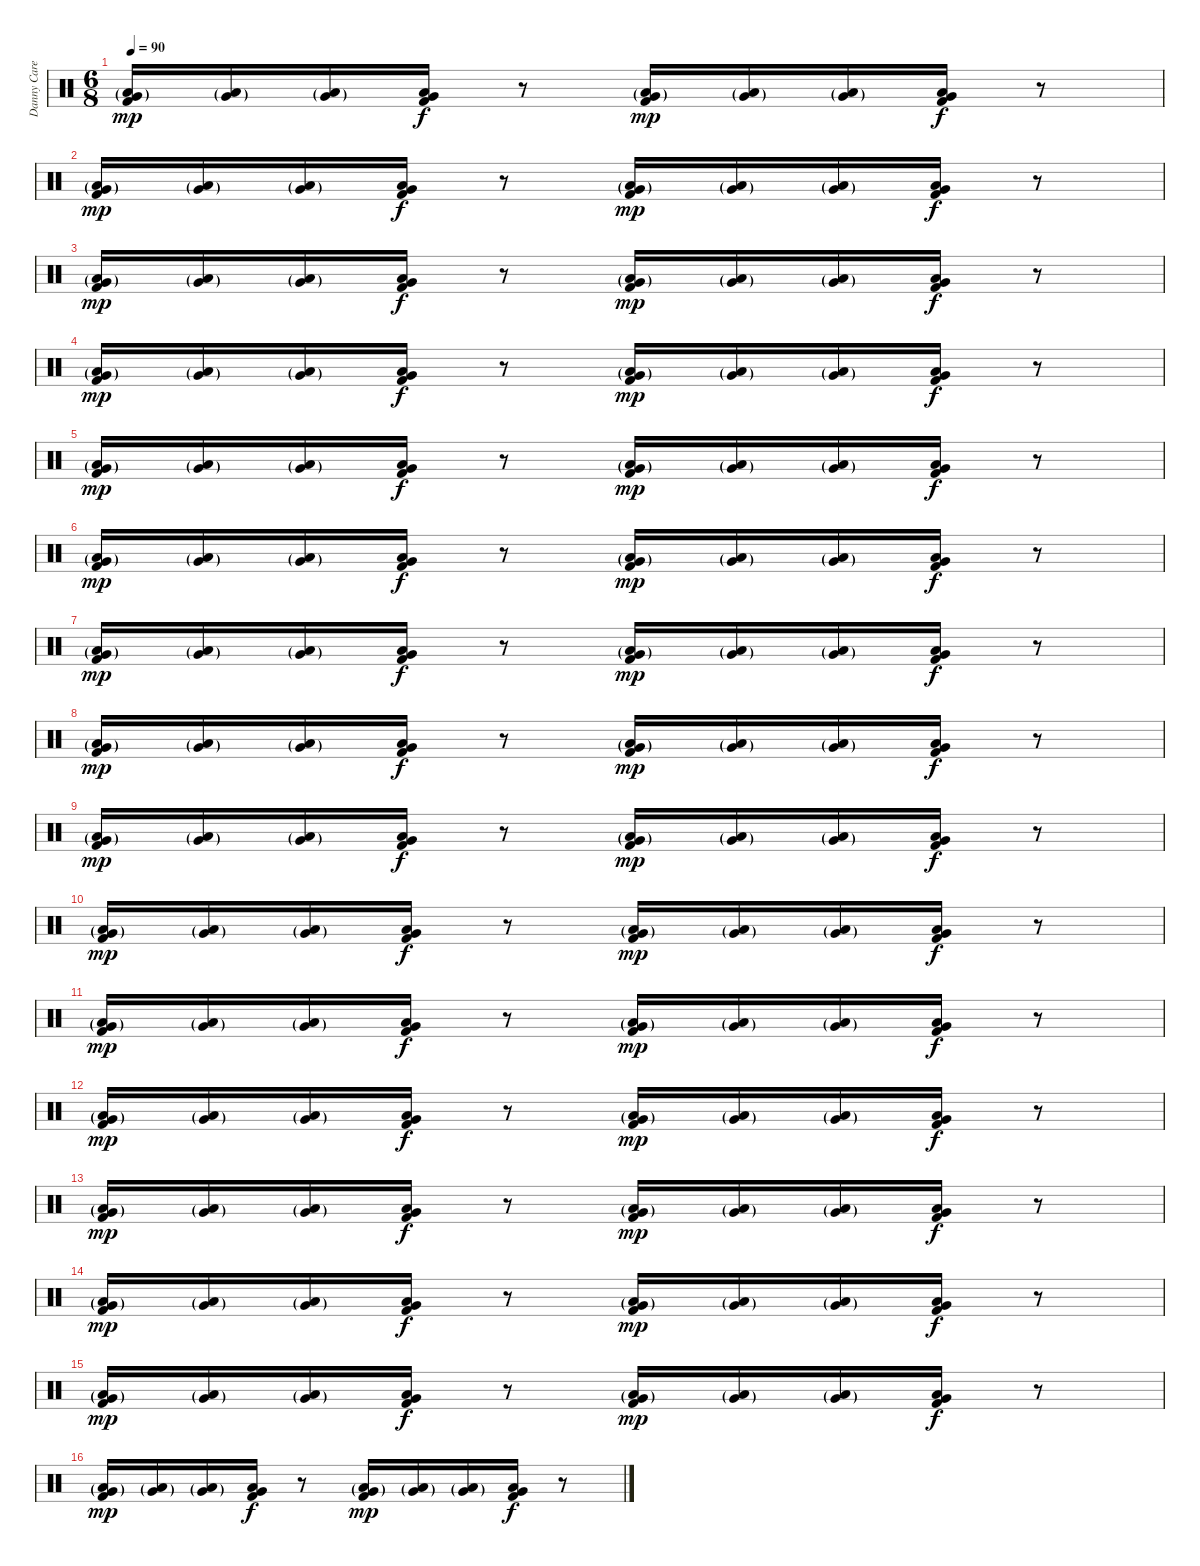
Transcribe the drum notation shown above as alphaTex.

\track ("Danny Carey" "Danny Care") {instrument percussion}
\staff {score}
\articulation defaults
\ts (6 8)
\tempo 90
\tempo 85
\tempo 90
\clef neutral
\ks c
("Very Low Tom (hit)"{g} "Low Floor Tom (hit)"{g} "Kick (hit) 2").16{dy mp volume 0} ("Very Low Tom (hit)"{g} "Low Floor Tom (hit)"{g}).16 ("Very Low Tom (hit)"{g} "Low Floor Tom (hit)"{g}).16 ("Very Low Tom (hit)" "Low Floor Tom (hit)" "Kick (hit) 2").16{dy f} r.8 ("Very Low Tom (hit)"{g} "Low Floor Tom (hit)"{g} "Kick (hit) 2").16{dy mp} ("Very Low Tom (hit)"{g} "Low Floor Tom (hit)"{g}).16 ("Very Low Tom (hit)"{g} "Low Floor Tom (hit)"{g}).16 ("Very Low Tom (hit)" "Low Floor Tom (hit)" "Kick (hit) 2").16{dy f} r.8 |
("Very Low Tom (hit)"{g} "Low Floor Tom (hit)"{g} "Kick (hit) 2").16{dy mp} ("Very Low Tom (hit)"{g} "Low Floor Tom (hit)"{g}).16 ("Very Low Tom (hit)"{g} "Low Floor Tom (hit)"{g}).16 ("Very Low Tom (hit)" "Low Floor Tom (hit)" "Kick (hit) 2").16{dy f} r.8 ("Very Low Tom (hit)"{g} "Low Floor Tom (hit)"{g} "Kick (hit) 2").16{dy mp} ("Very Low Tom (hit)"{g} "Low Floor Tom (hit)"{g}).16 ("Very Low Tom (hit)"{g} "Low Floor Tom (hit)"{g}).16 ("Very Low Tom (hit)" "Low Floor Tom (hit)" "Kick (hit) 2").16{dy f} r.8 |
("Very Low Tom (hit)"{g} "Low Floor Tom (hit)"{g} "Kick (hit) 2").16{dy mp} ("Very Low Tom (hit)"{g} "Low Floor Tom (hit)"{g}).16 ("Very Low Tom (hit)"{g} "Low Floor Tom (hit)"{g}).16 ("Very Low Tom (hit)" "Low Floor Tom (hit)" "Kick (hit) 2").16{dy f} r.8 ("Very Low Tom (hit)"{g} "Low Floor Tom (hit)"{g} "Kick (hit) 2").16{dy mp} ("Very Low Tom (hit)"{g} "Low Floor Tom (hit)"{g}).16 ("Very Low Tom (hit)"{g} "Low Floor Tom (hit)"{g}).16 ("Very Low Tom (hit)" "Low Floor Tom (hit)" "Kick (hit) 2").16{dy f} r.8 |
("Very Low Tom (hit)"{g} "Low Floor Tom (hit)"{g} "Kick (hit) 2").16{dy mp} ("Very Low Tom (hit)"{g} "Low Floor Tom (hit)"{g}).16 ("Very Low Tom (hit)"{g} "Low Floor Tom (hit)"{g}).16 ("Very Low Tom (hit)" "Low Floor Tom (hit)" "Kick (hit) 2").16{dy f} r.8 ("Very Low Tom (hit)"{g} "Low Floor Tom (hit)"{g} "Kick (hit) 2").16{dy mp} ("Very Low Tom (hit)"{g} "Low Floor Tom (hit)"{g}).16 ("Very Low Tom (hit)"{g} "Low Floor Tom (hit)"{g}).16 ("Very Low Tom (hit)" "Low Floor Tom (hit)" "Kick (hit) 2").16{dy f} r.8 |
("Very Low Tom (hit)"{g} "Low Floor Tom (hit)"{g} "Kick (hit) 2").16{dy mp} ("Very Low Tom (hit)"{g} "Low Floor Tom (hit)"{g}).16 ("Very Low Tom (hit)"{g} "Low Floor Tom (hit)"{g}).16 ("Very Low Tom (hit)" "Low Floor Tom (hit)" "Kick (hit) 2").16{dy f} r.8 ("Very Low Tom (hit)"{g} "Low Floor Tom (hit)"{g} "Kick (hit) 2").16{dy mp volume 0} ("Very Low Tom (hit)"{g} "Low Floor Tom (hit)"{g}).16{volume 2} ("Very Low Tom (hit)"{g} "Low Floor Tom (hit)"{g}).16 ("Very Low Tom (hit)" "Low Floor Tom (hit)" "Kick (hit) 2").16{dy f} r.8 |
("Very Low Tom (hit)"{g} "Low Floor Tom (hit)"{g} "Kick (hit) 2").16{dy mp} ("Very Low Tom (hit)"{g} "Low Floor Tom (hit)"{g}).16 ("Very Low Tom (hit)"{g} "Low Floor Tom (hit)"{g}).16 ("Very Low Tom (hit)" "Low Floor Tom (hit)" "Kick (hit) 2").16{dy f} r.8 ("Very Low Tom (hit)"{g} "Low Floor Tom (hit)"{g} "Kick (hit) 2").16{dy mp} ("Very Low Tom (hit)"{g} "Low Floor Tom (hit)"{g}).16 ("Very Low Tom (hit)"{g} "Low Floor Tom (hit)"{g}).16 ("Very Low Tom (hit)" "Low Floor Tom (hit)" "Kick (hit) 2").16{dy f} r.8 |
("Very Low Tom (hit)"{g} "Low Floor Tom (hit)"{g} "Kick (hit) 2").16{dy mp} ("Very Low Tom (hit)"{g} "Low Floor Tom (hit)"{g}).16 ("Very Low Tom (hit)"{g} "Low Floor Tom (hit)"{g}).16 ("Very Low Tom (hit)" "Low Floor Tom (hit)" "Kick (hit) 2").16{dy f} r.8 ("Very Low Tom (hit)"{g} "Low Floor Tom (hit)"{g} "Kick (hit) 2").16{dy mp} ("Very Low Tom (hit)"{g} "Low Floor Tom (hit)"{g}).16 ("Very Low Tom (hit)"{g} "Low Floor Tom (hit)"{g}).16 ("Very Low Tom (hit)" "Low Floor Tom (hit)" "Kick (hit) 2").16{dy f} r.8 |
("Very Low Tom (hit)"{g} "Low Floor Tom (hit)"{g} "Kick (hit) 2").16{dy mp} ("Very Low Tom (hit)"{g} "Low Floor Tom (hit)"{g}).16 ("Very Low Tom (hit)"{g} "Low Floor Tom (hit)"{g}).16 ("Very Low Tom (hit)" "Low Floor Tom (hit)" "Kick (hit) 2").16{dy f} r.8 ("Very Low Tom (hit)"{g} "Low Floor Tom (hit)"{g} "Kick (hit) 2").16{dy mp} ("Very Low Tom (hit)"{g} "Low Floor Tom (hit)"{g}).16 ("Very Low Tom (hit)"{g} "Low Floor Tom (hit)"{g}).16 ("Very Low Tom (hit)" "Low Floor Tom (hit)" "Kick (hit) 2").16{dy f} r.8 |
("Very Low Tom (hit)"{g} "Low Floor Tom (hit)"{g} "Kick (hit) 2").16{dy mp volume 2} ("Very Low Tom (hit)"{g} "Low Floor Tom (hit)"{g}).16{volume 3} ("Very Low Tom (hit)"{g} "Low Floor Tom (hit)"{g}).16 ("Very Low Tom (hit)" "Low Floor Tom (hit)" "Kick (hit) 2").16{dy f} r.8 ("Very Low Tom (hit)"{g} "Low Floor Tom (hit)"{g} "Kick (hit) 2").16{dy mp} ("Very Low Tom (hit)"{g} "Low Floor Tom (hit)"{g}).16 ("Very Low Tom (hit)"{g} "Low Floor Tom (hit)"{g}).16 ("Very Low Tom (hit)" "Low Floor Tom (hit)" "Kick (hit) 2").16{dy f} r.8 |
("Very Low Tom (hit)"{g} "Low Floor Tom (hit)"{g} "Kick (hit) 2").16{dy mp} ("Very Low Tom (hit)"{g} "Low Floor Tom (hit)"{g}).16 ("Very Low Tom (hit)"{g} "Low Floor Tom (hit)"{g}).16 ("Very Low Tom (hit)" "Low Floor Tom (hit)" "Kick (hit) 2").16{dy f} r.8 ("Very Low Tom (hit)"{g} "Low Floor Tom (hit)"{g} "Kick (hit) 2").16{dy mp} ("Very Low Tom (hit)"{g} "Low Floor Tom (hit)"{g}).16 ("Very Low Tom (hit)"{g} "Low Floor Tom (hit)"{g}).16 ("Very Low Tom (hit)" "Low Floor Tom (hit)" "Kick (hit) 2").16{dy f} r.8 |
("Very Low Tom (hit)"{g} "Low Floor Tom (hit)"{g} "Kick (hit) 2").16{dy mp} ("Very Low Tom (hit)"{g} "Low Floor Tom (hit)"{g}).16 ("Very Low Tom (hit)"{g} "Low Floor Tom (hit)"{g}).16 ("Very Low Tom (hit)" "Low Floor Tom (hit)" "Kick (hit) 2").16{dy f} r.8 ("Very Low Tom (hit)"{g} "Low Floor Tom (hit)"{g} "Kick (hit) 2").16{dy mp} ("Very Low Tom (hit)"{g} "Low Floor Tom (hit)"{g}).16 ("Very Low Tom (hit)"{g} "Low Floor Tom (hit)"{g}).16 ("Very Low Tom (hit)" "Low Floor Tom (hit)" "Kick (hit) 2").16{dy f} r.8 |
("Very Low Tom (hit)"{g} "Low Floor Tom (hit)"{g} "Kick (hit) 2").16{dy mp} ("Very Low Tom (hit)"{g} "Low Floor Tom (hit)"{g}).16 ("Very Low Tom (hit)"{g} "Low Floor Tom (hit)"{g}).16 ("Very Low Tom (hit)" "Low Floor Tom (hit)" "Kick (hit) 2").16{dy f} r.8 ("Very Low Tom (hit)"{g} "Low Floor Tom (hit)"{g} "Kick (hit) 2").16{dy mp} ("Very Low Tom (hit)"{g} "Low Floor Tom (hit)"{g}).16 ("Very Low Tom (hit)"{g} "Low Floor Tom (hit)"{g}).16 ("Very Low Tom (hit)" "Low Floor Tom (hit)" "Kick (hit) 2").16{dy f} r.8 |
("Very Low Tom (hit)"{g} "Low Floor Tom (hit)"{g} "Kick (hit) 2").16{dy mp volume 3} ("Very Low Tom (hit)"{g} "Low Floor Tom (hit)"{g}).16{volume 7} ("Very Low Tom (hit)"{g} "Low Floor Tom (hit)"{g}).16 ("Very Low Tom (hit)" "Low Floor Tom (hit)" "Kick (hit) 2").16{dy f} r.8 ("Very Low Tom (hit)"{g} "Low Floor Tom (hit)"{g} "Kick (hit) 2").16{dy mp} ("Very Low Tom (hit)"{g} "Low Floor Tom (hit)"{g}).16 ("Very Low Tom (hit)"{g} "Low Floor Tom (hit)"{g}).16 ("Very Low Tom (hit)" "Low Floor Tom (hit)" "Kick (hit) 2").16{dy f} r.8 |
("Very Low Tom (hit)"{g} "Low Floor Tom (hit)"{g} "Kick (hit) 2").16{dy mp} ("Very Low Tom (hit)"{g} "Low Floor Tom (hit)"{g}).16 ("Very Low Tom (hit)"{g} "Low Floor Tom (hit)"{g}).16 ("Very Low Tom (hit)" "Low Floor Tom (hit)" "Kick (hit) 2").16{dy f} r.8 ("Very Low Tom (hit)"{g} "Low Floor Tom (hit)"{g} "Kick (hit) 2").16{dy mp} ("Very Low Tom (hit)"{g} "Low Floor Tom (hit)"{g}).16 ("Very Low Tom (hit)"{g} "Low Floor Tom (hit)"{g}).16 ("Very Low Tom (hit)" "Low Floor Tom (hit)" "Kick (hit) 2").16{dy f} r.8 |
("Very Low Tom (hit)"{g} "Low Floor Tom (hit)"{g} "Kick (hit) 2").16{dy mp} ("Very Low Tom (hit)"{g} "Low Floor Tom (hit)"{g}).16 ("Very Low Tom (hit)"{g} "Low Floor Tom (hit)"{g}).16 ("Very Low Tom (hit)" "Low Floor Tom (hit)" "Kick (hit) 2").16{dy f} r.8 ("Very Low Tom (hit)"{g} "Low Floor Tom (hit)"{g} "Kick (hit) 2").16{dy mp} ("Very Low Tom (hit)"{g} "Low Floor Tom (hit)"{g}).16 ("Very Low Tom (hit)"{g} "Low Floor Tom (hit)"{g}).16 ("Very Low Tom (hit)" "Low Floor Tom (hit)" "Kick (hit) 2").16{dy f} r.8 |
("Very Low Tom (hit)"{g} "Low Floor Tom (hit)"{g} "Kick (hit) 2").16{dy mp} ("Very Low Tom (hit)"{g} "Low Floor Tom (hit)"{g}).16 ("Very Low Tom (hit)"{g} "Low Floor Tom (hit)"{g}).16 ("Very Low Tom (hit)" "Low Floor Tom (hit)" "Kick (hit) 2").16{dy f} r.8 ("Very Low Tom (hit)"{g} "Low Floor Tom (hit)"{g} "Kick (hit) 2").16{dy mp} ("Very Low Tom (hit)"{g} "Low Floor Tom (hit)"{g}).16 ("Very Low Tom (hit)"{g} "Low Floor Tom (hit)"{g}).16 ("Very Low Tom (hit)" "Low Floor Tom (hit)" "Kick (hit) 2").16{dy f} r.8
